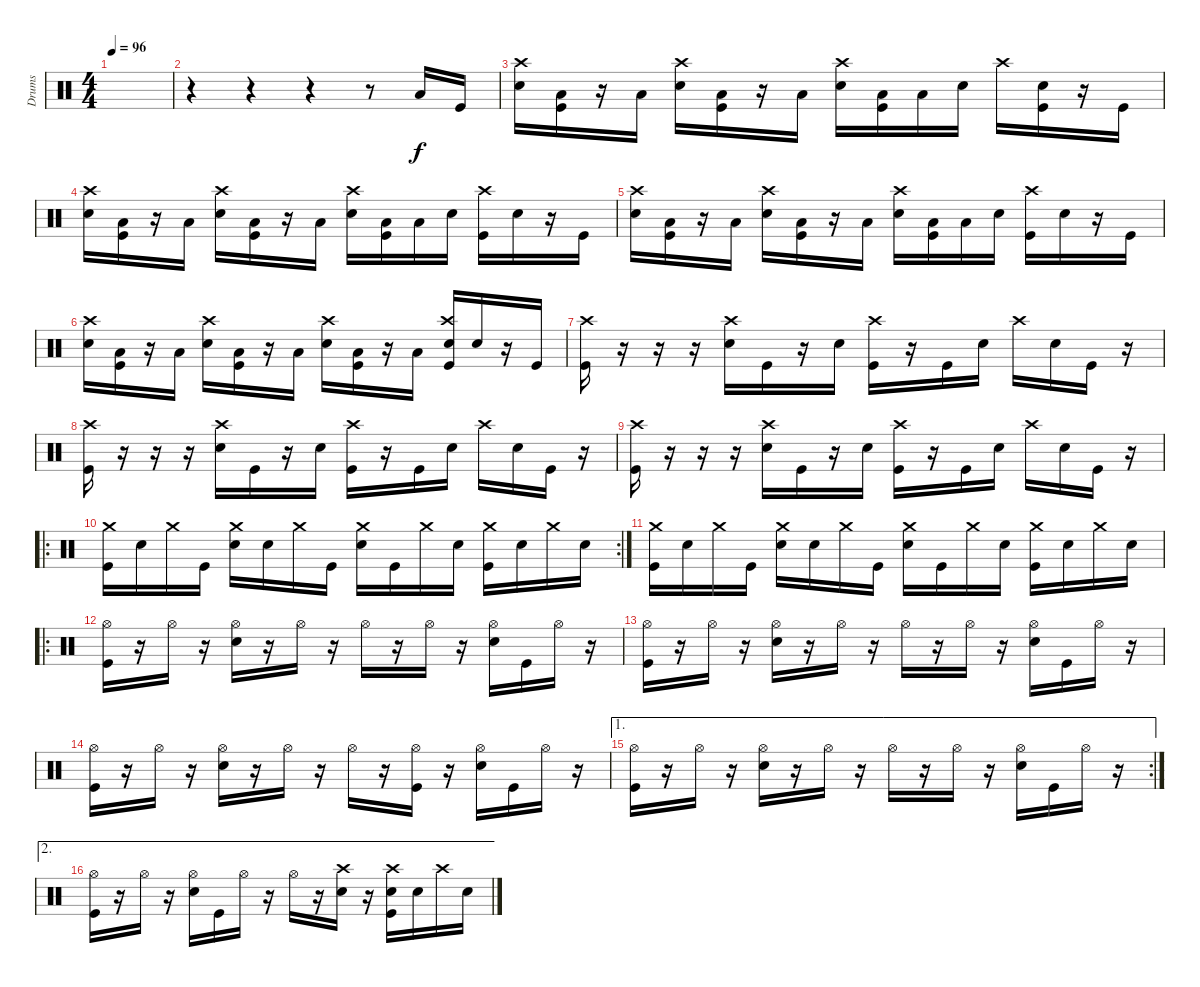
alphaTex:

\track ("Drums" "Drums") {instrument percussion}
\staff {score}
\articulation defaults
\ts (4 4)
\tempo 96
\clef neutral
\ks c
|
r.4 r.4 r.4 r.8 "Low Floor Tom (hit)".16 "Kick (hit)".16 |
("Crash high (hit)" "Snare (hit) 2").16 ("Low Floor Tom (hit)" "Kick (hit)").16 r.16 "Low Floor Tom (hit)".16 ("Crash high (hit)" "Snare (hit) 2").16 ("Low Floor Tom (hit)" "Kick (hit)").16 r.16 "Low Floor Tom (hit)".16 ("Crash high (hit)" "Snare (hit) 2").16 ("Low Floor Tom (hit)" "Kick (hit)").16 "Low Floor Tom (hit)".16 "Snare (hit) 2".16 "Crash high (hit)".16 ("Snare (hit) 2" "Kick (hit)").16 r.16 "Kick (hit)".16 |
("Crash high (hit)" "Snare (hit) 2").16 ("Low Floor Tom (hit)" "Kick (hit)").16 r.16 "Low Floor Tom (hit)".16 ("Crash high (hit)" "Snare (hit) 2").16 ("Low Floor Tom (hit)" "Kick (hit)").16 r.16 "Low Floor Tom (hit)".16 ("Crash high (hit)" "Snare (hit) 2").16 ("Low Floor Tom (hit)" "Kick (hit)").16 "Low Floor Tom (hit)".16 "Snare (hit) 2".16 ("Crash high (hit)" "Kick (hit)").16 "Snare (hit) 2".16 r.16 "Kick (hit)".16 |
("Crash high (hit)" "Snare (hit) 2").16 ("Low Floor Tom (hit)" "Kick (hit)").16 r.16 "Low Floor Tom (hit)".16 ("Crash high (hit)" "Snare (hit) 2").16 ("Low Floor Tom (hit)" "Kick (hit)").16 r.16 "Low Floor Tom (hit)".16 ("Crash high (hit)" "Snare (hit) 2").16 ("Low Floor Tom (hit)" "Kick (hit)").16 "Low Floor Tom (hit)".16 "Snare (hit) 2".16 ("Crash high (hit)" "Kick (hit)").16 "Snare (hit) 2".16 r.16 "Kick (hit)".16 |
("Crash high (hit)" "Snare (hit) 2").16 ("Low Floor Tom (hit)" "Kick (hit)").16 r.16 "Low Floor Tom (hit)".16 ("Crash high (hit)" "Snare (hit) 2").16 ("Low Floor Tom (hit)" "Kick (hit)").16 r.16 "Low Floor Tom (hit)".16 ("Crash high (hit)" "Snare (hit) 2").16 ("Low Floor Tom (hit)" "Kick (hit)").16 r.16 "Low Floor Tom (hit)".16 ("Crash high (hit)" "Snare (hit) 2" "Kick (hit)").16 "Snare (hit) 2".16 r.16 "Kick (hit)".16 |
("Crash high (hit)" "Kick (hit)").16 r.16 r.16 r.16 ("Crash high (hit)" "Snare (hit) 2").16 "Kick (hit)".16 r.16 "Snare (hit) 2".16 ("Crash high (hit)" "Kick (hit)").16 r.16 "Kick (hit)".16 "Snare (hit) 2".16 "Crash high (hit)".16 "Snare (hit) 2".16 "Kick (hit)".16 r.16 |
("Crash high (hit)" "Kick (hit)").16 r.16 r.16 r.16 ("Crash high (hit)" "Snare (hit) 2").16 "Kick (hit)".16 r.16 "Snare (hit) 2".16 ("Crash high (hit)" "Kick (hit)").16 r.16 "Kick (hit)".16 "Snare (hit) 2".16 "Crash high (hit)".16 "Snare (hit) 2".16 "Kick (hit)".16 r.16 |
("Crash high (hit)" "Kick (hit)").16 r.16 r.16 r.16 ("Crash high (hit)" "Snare (hit) 2").16 "Kick (hit)".16 r.16 "Snare (hit) 2".16 ("Crash high (hit)" "Kick (hit)").16 r.16 "Kick (hit)".16 "Snare (hit) 2".16 "Crash high (hit)".16 "Snare (hit) 2".16 "Kick (hit)".16 r.16 |
\ro
\rc 2
("Crash medium (hit)" "Kick (hit)").16 "Snare (hit) 2".16 "Crash medium (hit)".16 "Kick (hit)".16 ("Crash medium (hit)" "Snare (hit) 2").16 "Snare (hit) 2".16 "Crash medium (hit)".16 "Kick (hit)".16 ("Crash medium (hit)" "Snare (hit) 2").16 "Kick (hit)".16 "Crash medium (hit)".16 "Snare (hit) 2".16 ("Crash medium (hit)" "Kick (hit)").16 "Snare (hit) 2".16 "Crash medium (hit)".16 "Snare (hit) 2".16 |
("Crash medium (hit)" "Kick (hit)").16 "Snare (hit) 2".16 "Crash medium (hit)".16 "Kick (hit)".16 ("Crash medium (hit)" "Snare (hit) 2").16 "Snare (hit) 2".16 "Crash medium (hit)".16 "Kick (hit)".16 ("Crash medium (hit)" "Snare (hit) 2").16 "Kick (hit)".16 "Crash medium (hit)".16 "Snare (hit) 2".16 ("Crash medium (hit)" "Kick (hit)").16 "Snare (hit) 2".16 "Crash medium (hit)".16 "Snare (hit) 2".16 |
\ro
("Hi-Hat (open)" "Kick (hit)").16 r.16 "Hi-Hat (open)".16 r.16 ("Hi-Hat (open)" "Snare (hit) 2").16 r.16 "Hi-Hat (open)".16 r.16 "Hi-Hat (open)".16 r.16 "Hi-Hat (open)".16 r.16 ("Hi-Hat (open)" "Snare (hit) 2").16 "Kick (hit)".16 "Hi-Hat (open)".16 r.16 |
("Hi-Hat (open)" "Kick (hit)").16 r.16 "Hi-Hat (open)".16 r.16 ("Hi-Hat (open)" "Snare (hit) 2").16 r.16 "Hi-Hat (open)".16 r.16 "Hi-Hat (open)".16 r.16 "Hi-Hat (open)".16 r.16 ("Hi-Hat (open)" "Snare (hit) 2").16 "Kick (hit)".16 "Hi-Hat (open)".16 r.16 |
("Hi-Hat (open)" "Kick (hit)").16 r.16 "Hi-Hat (open)".16 r.16 ("Hi-Hat (open)" "Snare (hit) 2").16 r.16 "Hi-Hat (open)".16 r.16 "Hi-Hat (open)".16 r.16 ("Hi-Hat (open)" "Kick (hit)").16 r.16 ("Hi-Hat (open)" "Snare (hit) 2").16 "Kick (hit)".16 "Hi-Hat (open)".16 r.16 |
\ae 1
\rc 2
("Hi-Hat (open)" "Kick (hit)").16 r.16 "Hi-Hat (open)".16 r.16 ("Hi-Hat (open)" "Snare (hit) 2").16 r.16 "Hi-Hat (open)".16 r.16 "Hi-Hat (open)".16 r.16 "Hi-Hat (open)".16 r.16 ("Hi-Hat (open)" "Snare (hit) 2").16 "Kick (hit)".16 "Hi-Hat (open)".16 r.16 |
\ae 2
("Hi-Hat (open)" "Kick (hit)").16 r.16 "Hi-Hat (open)".16 r.16 ("Hi-Hat (open)" "Snare (hit) 2").16 "Kick (hit)".16 "Hi-Hat (open)".16 r.16 "Hi-Hat (open)".16 r.16 ("Crash high (hit)" "Snare (hit) 2").16 r.16 ("Crash high (hit)" "Snare (hit) 2" "Kick (hit)").16 "Snare (hit) 2".16 "Crash high (hit)".16 "Snare (hit) 2".16
